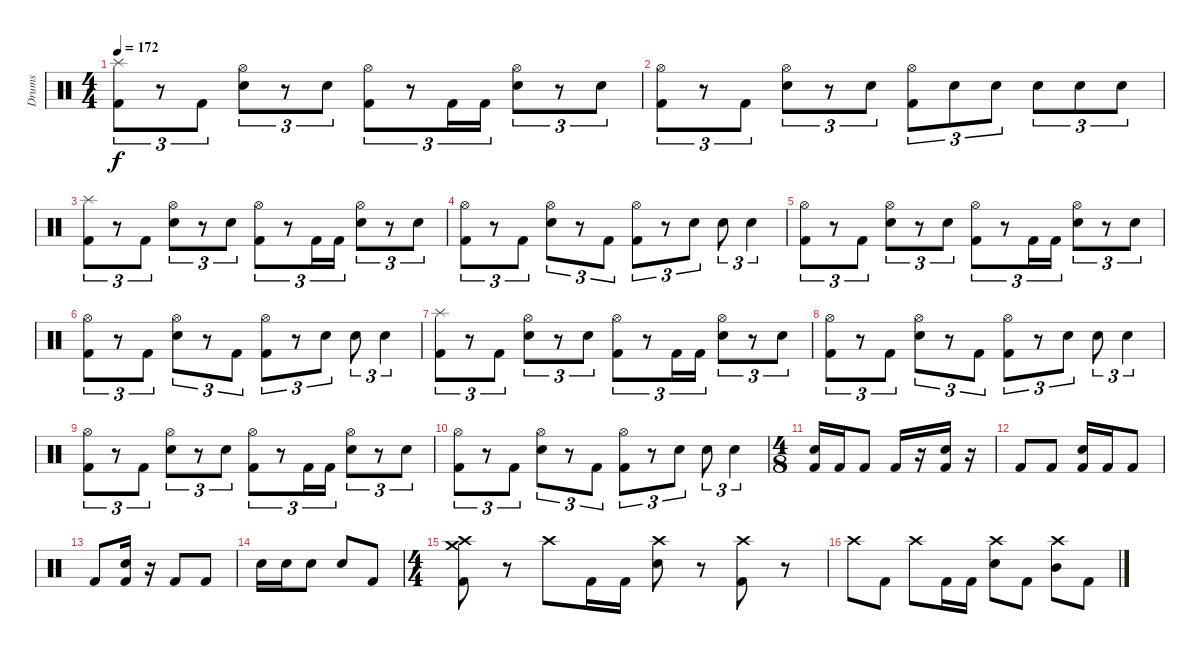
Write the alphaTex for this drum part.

\track ("Drums" "Drums") {instrument percussion}
\staff {score}
\articulation defaults
\ts (4 4)
\tempo 172
\clef neutral
\ks c
("Splash (hit)" "Kick (hit) 2").8{tu (3 2) dy f} r.8{tu (3 2)} "Kick (hit) 2".8{tu (3 2)} ("Hi-Hat (open)" "Snare (hit) 2").8{tu (3 2)} r.8{tu (3 2)} "Snare (hit) 2".8{tu (3 2)} ("Hi-Hat (open)" "Kick (hit) 2").8{tu (3 2)} r.8{tu (3 2)} "Kick (hit) 2".16{tu (3 2)} "Kick (hit) 2".16{tu (3 2)} ("Hi-Hat (open)" "Snare (hit) 2").8{tu (3 2)} r.8{tu (3 2)} "Snare (hit) 2".8{tu (3 2)} |
("Hi-Hat (open)" "Kick (hit) 2").8{tu (3 2)} r.8{tu (3 2)} "Kick (hit) 2".8{tu (3 2)} ("Hi-Hat (open)" "Snare (hit) 2").8{tu (3 2)} r.8{tu (3 2)} "Snare (hit) 2".8{tu (3 2)} ("Hi-Hat (open)" "Kick (hit) 2").8{tu (3 2)} "Snare (hit) 2".8{tu (3 2)} "Snare (hit) 2".8{tu (3 2)} "Snare (hit) 2".8{tu (3 2)} "Snare (hit) 2".8{tu (3 2)} "Snare (hit) 2".8{tu (3 2)} |
("Splash (hit)" "Kick (hit) 2").8{tu (3 2)} r.8{tu (3 2)} "Kick (hit) 2".8{tu (3 2)} ("Hi-Hat (open)" "Snare (hit) 2").8{tu (3 2)} r.8{tu (3 2)} "Snare (hit) 2".8{tu (3 2)} ("Hi-Hat (open)" "Kick (hit) 2").8{tu (3 2)} r.8{tu (3 2)} "Kick (hit) 2".16{tu (3 2)} "Kick (hit) 2".16{tu (3 2)} ("Hi-Hat (open)" "Snare (hit) 2").8{tu (3 2)} r.8{tu (3 2)} "Snare (hit) 2".8{tu (3 2)} |
("Hi-Hat (open)" "Kick (hit) 2").8{tu (3 2)} r.8{tu (3 2)} "Kick (hit) 2".8{tu (3 2)} ("Hi-Hat (open)" "Snare (hit) 2").8{tu (3 2)} r.8{tu (3 2)} "Kick (hit) 2".8{tu (3 2)} ("Hi-Hat (open)" "Kick (hit) 2").8{tu (3 2)} r.8{tu (3 2)} "Snare (hit) 2".8{tu (3 2)} "Snare (hit) 2".8{tu (3 2)} "Snare (hit) 2".4{tu (3 2)} |
("Hi-Hat (open)" "Kick (hit) 2").8{tu (3 2)} r.8{tu (3 2)} "Kick (hit) 2".8{tu (3 2)} ("Hi-Hat (open)" "Snare (hit) 2").8{tu (3 2)} r.8{tu (3 2)} "Snare (hit) 2".8{tu (3 2)} ("Hi-Hat (open)" "Kick (hit) 2").8{tu (3 2)} r.8{tu (3 2)} "Kick (hit) 2".16{tu (3 2)} "Kick (hit) 2".16{tu (3 2)} ("Hi-Hat (open)" "Snare (hit) 2").8{tu (3 2)} r.8{tu (3 2)} "Snare (hit) 2".8{tu (3 2)} |
("Hi-Hat (open)" "Kick (hit) 2").8{tu (3 2)} r.8{tu (3 2)} "Kick (hit) 2".8{tu (3 2)} ("Hi-Hat (open)" "Snare (hit) 2").8{tu (3 2)} r.8{tu (3 2)} "Kick (hit) 2".8{tu (3 2)} ("Hi-Hat (open)" "Kick (hit) 2").8{tu (3 2)} r.8{tu (3 2)} "Snare (hit) 2".8{tu (3 2)} "Snare (hit) 2".8{tu (3 2)} "Snare (hit) 2".4{tu (3 2)} |
("Splash (hit)" "Kick (hit) 2").8{tu (3 2)} r.8{tu (3 2)} "Kick (hit) 2".8{tu (3 2)} ("Hi-Hat (open)" "Snare (hit) 2").8{tu (3 2)} r.8{tu (3 2)} "Snare (hit) 2".8{tu (3 2)} ("Hi-Hat (open)" "Kick (hit) 2").8{tu (3 2)} r.8{tu (3 2)} "Kick (hit) 2".16{tu (3 2)} "Kick (hit) 2".16{tu (3 2)} ("Hi-Hat (open)" "Snare (hit) 2").8{tu (3 2)} r.8{tu (3 2)} "Snare (hit) 2".8{tu (3 2)} |
("Hi-Hat (open)" "Kick (hit) 2").8{tu (3 2)} r.8{tu (3 2)} "Kick (hit) 2".8{tu (3 2)} ("Hi-Hat (open)" "Snare (hit) 2").8{tu (3 2)} r.8{tu (3 2)} "Kick (hit) 2".8{tu (3 2)} ("Hi-Hat (open)" "Kick (hit) 2").8{tu (3 2)} r.8{tu (3 2)} "Snare (hit) 2".8{tu (3 2)} "Snare (hit) 2".8{tu (3 2)} "Snare (hit) 2".4{tu (3 2)} |
("Hi-Hat (open)" "Kick (hit) 2").8{tu (3 2)} r.8{tu (3 2)} "Kick (hit) 2".8{tu (3 2)} ("Hi-Hat (open)" "Snare (hit) 2").8{tu (3 2)} r.8{tu (3 2)} "Snare (hit) 2".8{tu (3 2)} ("Hi-Hat (open)" "Kick (hit) 2").8{tu (3 2)} r.8{tu (3 2)} "Kick (hit) 2".16{tu (3 2)} "Kick (hit) 2".16{tu (3 2)} ("Hi-Hat (open)" "Snare (hit) 2").8{tu (3 2)} r.8{tu (3 2)} "Snare (hit) 2".8{tu (3 2)} |
("Hi-Hat (open)" "Kick (hit) 2").8{tu (3 2)} r.8{tu (3 2)} "Kick (hit) 2".8{tu (3 2)} ("Hi-Hat (open)" "Snare (hit) 2").8{tu (3 2)} r.8{tu (3 2)} "Kick (hit) 2".8{tu (3 2)} ("Hi-Hat (open)" "Kick (hit) 2").8{tu (3 2)} r.8{tu (3 2)} "Snare (hit) 2".8{tu (3 2)} "Snare (hit) 2".8{tu (3 2)} "Snare (hit) 2".4{tu (3 2)} |
\ts (4 8)
("Snare (hit) 2" "Kick (hit) 2").16 "Kick (hit) 2".16 "Kick (hit) 2".8 "Kick (hit) 2".16 r.16 ("Snare (hit) 2" "Kick (hit) 2").16 r.16 |
"Kick (hit) 2".8 "Kick (hit) 2".8 ("Snare (hit) 2" "Kick (hit) 2").16 "Kick (hit) 2".16 "Kick (hit) 2".8 |
"Kick (hit) 2".8 ("Snare (hit) 2" "Kick (hit) 2").16 r.16 "Kick (hit) 2".8 "Kick (hit) 2".8 |
"Snare (hit) 2".16 "Snare (hit) 2".16 "Snare (hit) 2".8 "Snare (hit) 2".8 "Kick (hit) 2".8 |
\ts (4 4)
("Crash medium (hit)" "Crash high (hit)" "Kick (hit) 2").8 r.8 "Crash high (hit)".8 "Kick (hit) 2".16 "Kick (hit) 2".16 ("Crash high (hit)" "Snare (hit) 2").8 r.8 ("Crash high (hit)" "Kick (hit) 2").8 r.8 |
"Crash high (hit)".8 "Kick (hit) 2".8 "Crash high (hit)".8 "Kick (hit) 2".16 "Kick (hit) 2".16 ("Crash high (hit)" "Snare (hit) 2").8 "Kick (hit) 2".8 ("Crash high (hit)" "Mid Tom (hit)").8 "Kick (hit) 2".8
